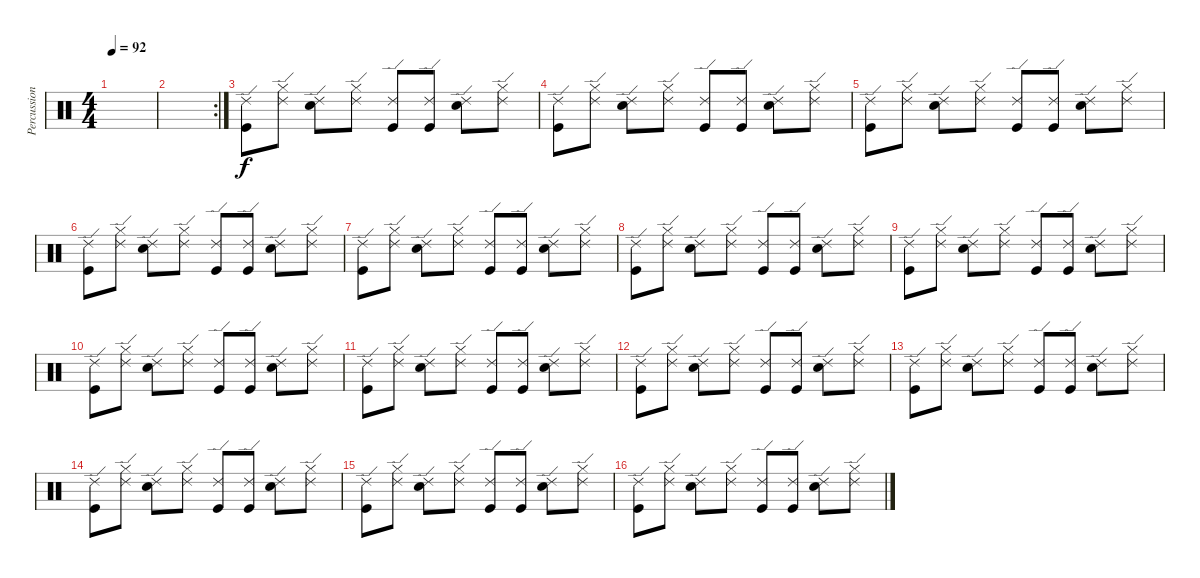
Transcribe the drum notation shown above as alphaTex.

\track ("Percussion" "Percussion") {instrument percussion}
\staff {score}
\articulation defaults
\ts (4 4)
\tempo 92
\clef neutral
\ks c
|
\rc 2
|
("Kick (hit)" "Ride (edge) 2").8 ("Hi-Hat (closed)" "Ride (edge) 2").8 ("Snare (hit) 2" "Ride (edge) 2").8 ("Hi-Hat (closed)" "Ride (edge) 2").8 ("Kick (hit)" "Ride (edge) 2").8 ("Kick (hit)" "Ride (edge) 2").8 ("Snare (hit) 2" "Ride (edge) 2").8 ("Hi-Hat (closed)" "Ride (edge) 2").8 |
("Kick (hit)" "Ride (edge) 2").8 ("Hi-Hat (closed)" "Ride (edge) 2").8 ("Snare (hit) 2" "Ride (edge) 2").8 ("Hi-Hat (closed)" "Ride (edge) 2").8 ("Kick (hit)" "Ride (edge) 2").8 ("Kick (hit)" "Ride (edge) 2").8 ("Snare (hit) 2" "Ride (edge) 2").8 ("Hi-Hat (closed)" "Ride (edge) 2").8 |
("Kick (hit)" "Ride (edge) 2").8 ("Hi-Hat (closed)" "Ride (edge) 2").8 ("Snare (hit) 2" "Ride (edge) 2").8 ("Hi-Hat (closed)" "Ride (edge) 2").8 ("Kick (hit)" "Ride (edge) 2").8 ("Kick (hit)" "Ride (edge) 2").8 ("Snare (hit) 2" "Ride (edge) 2").8 ("Hi-Hat (closed)" "Ride (edge) 2").8 |
("Kick (hit)" "Ride (edge) 2").8 ("Hi-Hat (closed)" "Ride (edge) 2").8 ("Snare (hit) 2" "Ride (edge) 2").8 ("Hi-Hat (closed)" "Ride (edge) 2").8 ("Kick (hit)" "Ride (edge) 2").8 ("Kick (hit)" "Ride (edge) 2").8 ("Snare (hit) 2" "Ride (edge) 2").8 ("Hi-Hat (closed)" "Ride (edge) 2").8 |
("Kick (hit)" "Ride (edge) 2").8 ("Hi-Hat (closed)" "Ride (edge) 2").8 ("Snare (hit) 2" "Ride (edge) 2").8 ("Hi-Hat (closed)" "Ride (edge) 2").8 ("Kick (hit)" "Ride (edge) 2").8 ("Kick (hit)" "Ride (edge) 2").8 ("Snare (hit) 2" "Ride (edge) 2").8 ("Hi-Hat (closed)" "Ride (edge) 2").8 |
("Kick (hit)" "Ride (edge) 2").8 ("Hi-Hat (closed)" "Ride (edge) 2").8 ("Snare (hit) 2" "Ride (edge) 2").8 ("Hi-Hat (closed)" "Ride (edge) 2").8 ("Kick (hit)" "Ride (edge) 2").8 ("Kick (hit)" "Ride (edge) 2").8 ("Snare (hit) 2" "Ride (edge) 2").8 ("Hi-Hat (closed)" "Ride (edge) 2").8 |
("Kick (hit)" "Ride (edge) 2").8 ("Hi-Hat (closed)" "Ride (edge) 2").8 ("Snare (hit) 2" "Ride (edge) 2").8 ("Hi-Hat (closed)" "Ride (edge) 2").8 ("Kick (hit)" "Ride (edge) 2").8 ("Kick (hit)" "Ride (edge) 2").8 ("Snare (hit) 2" "Ride (edge) 2").8 ("Hi-Hat (closed)" "Ride (edge) 2").8 |
("Kick (hit)" "Ride (edge) 2").8 ("Hi-Hat (closed)" "Ride (edge) 2").8 ("Snare (hit) 2" "Ride (edge) 2").8 ("Hi-Hat (closed)" "Ride (edge) 2").8 ("Kick (hit)" "Ride (edge) 2").8 ("Kick (hit)" "Ride (edge) 2").8 ("Snare (hit) 2" "Ride (edge) 2").8 ("Hi-Hat (closed)" "Ride (edge) 2").8 |
("Kick (hit)" "Ride (edge) 2").8 ("Hi-Hat (closed)" "Ride (edge) 2").8 ("Snare (hit) 2" "Ride (edge) 2").8 ("Hi-Hat (closed)" "Ride (edge) 2").8 ("Kick (hit)" "Ride (edge) 2").8 ("Kick (hit)" "Ride (edge) 2").8 ("Snare (hit) 2" "Ride (edge) 2").8 ("Hi-Hat (closed)" "Ride (edge) 2").8 |
("Kick (hit)" "Ride (edge) 2").8 ("Hi-Hat (closed)" "Ride (edge) 2").8 ("Snare (hit) 2" "Ride (edge) 2").8 ("Hi-Hat (closed)" "Ride (edge) 2").8 ("Kick (hit)" "Ride (edge) 2").8 ("Kick (hit)" "Ride (edge) 2").8 ("Snare (hit) 2" "Ride (edge) 2").8 ("Hi-Hat (closed)" "Ride (edge) 2").8 |
("Kick (hit)" "Ride (edge) 2").8 ("Hi-Hat (closed)" "Ride (edge) 2").8 ("Snare (hit) 2" "Ride (edge) 2").8 ("Hi-Hat (closed)" "Ride (edge) 2").8 ("Kick (hit)" "Ride (edge) 2").8 ("Kick (hit)" "Ride (edge) 2").8 ("Snare (hit) 2" "Ride (edge) 2").8 ("Hi-Hat (closed)" "Ride (edge) 2").8 |
("Kick (hit)" "Ride (edge) 2").8 ("Hi-Hat (closed)" "Ride (edge) 2").8 ("Snare (hit) 2" "Ride (edge) 2").8 ("Hi-Hat (closed)" "Ride (edge) 2").8 ("Kick (hit)" "Ride (edge) 2").8 ("Kick (hit)" "Ride (edge) 2").8 ("Snare (hit) 2" "Ride (edge) 2").8 ("Hi-Hat (closed)" "Ride (edge) 2").8 |
("Kick (hit)" "Ride (edge) 2").8 ("Hi-Hat (closed)" "Ride (edge) 2").8 ("Snare (hit) 2" "Ride (edge) 2").8 ("Hi-Hat (closed)" "Ride (edge) 2").8 ("Kick (hit)" "Ride (edge) 2").8 ("Kick (hit)" "Ride (edge) 2").8 ("Snare (hit) 2" "Ride (edge) 2").8 ("Hi-Hat (closed)" "Ride (edge) 2").8 |
("Kick (hit)" "Ride (edge) 2").8 ("Hi-Hat (closed)" "Ride (edge) 2").8 ("Snare (hit) 2" "Ride (edge) 2").8 ("Hi-Hat (closed)" "Ride (edge) 2").8 ("Kick (hit)" "Ride (edge) 2").8 ("Kick (hit)" "Ride (edge) 2").8 ("Snare (hit) 2" "Ride (edge) 2").8 ("Hi-Hat (closed)" "Ride (edge) 2").8
